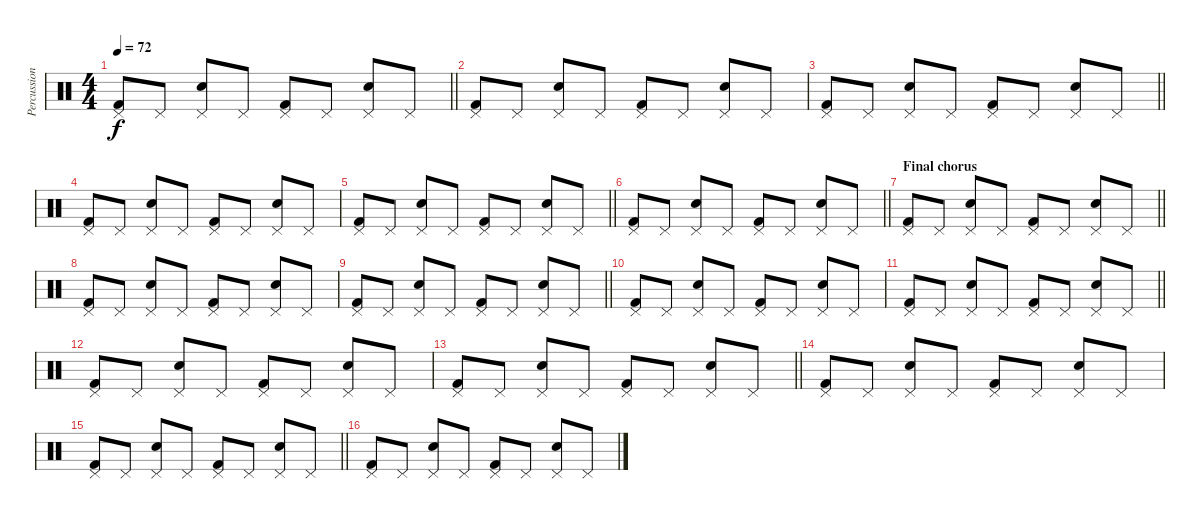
\track ("Percussion" "Percussion") {instrument percussion}
\staff {score}
\articulation defaults
\ts (4 4)
\tempo 72
\clef neutral
\barLineRight lightlight
\ks c
("Pedal Hi-Hat (hit)" "Kick (hit) 2").8{dy f} "Pedal Hi-Hat (hit)".8 ("Pedal Hi-Hat (hit)" "Snare (hit) 2").8 "Pedal Hi-Hat (hit)".8 ("Pedal Hi-Hat (hit)" "Kick (hit) 2").8 "Pedal Hi-Hat (hit)".8 ("Pedal Hi-Hat (hit)" "Snare (hit) 2").8 "Pedal Hi-Hat (hit)".8 |
("Pedal Hi-Hat (hit)" "Kick (hit) 2").8 "Pedal Hi-Hat (hit)".8 ("Pedal Hi-Hat (hit)" "Snare (hit) 2").8 "Pedal Hi-Hat (hit)".8 ("Pedal Hi-Hat (hit)" "Kick (hit) 2").8 "Pedal Hi-Hat (hit)".8 ("Pedal Hi-Hat (hit)" "Snare (hit) 2").8 "Pedal Hi-Hat (hit)".8 |
\barLineRight lightlight
("Pedal Hi-Hat (hit)" "Kick (hit) 2").8 "Pedal Hi-Hat (hit)".8 ("Pedal Hi-Hat (hit)" "Snare (hit) 2").8 "Pedal Hi-Hat (hit)".8 ("Pedal Hi-Hat (hit)" "Kick (hit) 2").8 "Pedal Hi-Hat (hit)".8 ("Pedal Hi-Hat (hit)" "Snare (hit) 2").8 "Pedal Hi-Hat (hit)".8 |
("Pedal Hi-Hat (hit)" "Kick (hit) 2").8 "Pedal Hi-Hat (hit)".8 ("Pedal Hi-Hat (hit)" "Snare (hit) 2").8 "Pedal Hi-Hat (hit)".8 ("Pedal Hi-Hat (hit)" "Kick (hit) 2").8 "Pedal Hi-Hat (hit)".8 ("Pedal Hi-Hat (hit)" "Snare (hit) 2").8 "Pedal Hi-Hat (hit)".8 |
\barLineRight lightlight
("Pedal Hi-Hat (hit)" "Kick (hit) 2").8 "Pedal Hi-Hat (hit)".8 ("Pedal Hi-Hat (hit)" "Snare (hit) 2").8 "Pedal Hi-Hat (hit)".8 ("Pedal Hi-Hat (hit)" "Kick (hit) 2").8 "Pedal Hi-Hat (hit)".8 ("Pedal Hi-Hat (hit)" "Snare (hit) 2").8 "Pedal Hi-Hat (hit)".8 |
\barLineRight lightlight
("Pedal Hi-Hat (hit)" "Kick (hit) 2").8 "Pedal Hi-Hat (hit)".8 ("Pedal Hi-Hat (hit)" "Snare (hit) 2").8 "Pedal Hi-Hat (hit)".8 ("Pedal Hi-Hat (hit)" "Kick (hit) 2").8 "Pedal Hi-Hat (hit)".8 ("Pedal Hi-Hat (hit)" "Snare (hit) 2").8 "Pedal Hi-Hat (hit)".8 |
\section ("" "Final chorus")
\barLineRight lightlight
("Pedal Hi-Hat (hit)" "Kick (hit) 2").8 "Pedal Hi-Hat (hit)".8 ("Pedal Hi-Hat (hit)" "Snare (hit) 2").8 "Pedal Hi-Hat (hit)".8 ("Pedal Hi-Hat (hit)" "Kick (hit) 2").8 "Pedal Hi-Hat (hit)".8 ("Pedal Hi-Hat (hit)" "Snare (hit) 2").8 "Pedal Hi-Hat (hit)".8 |
("Pedal Hi-Hat (hit)" "Kick (hit) 2").8 "Pedal Hi-Hat (hit)".8 ("Pedal Hi-Hat (hit)" "Snare (hit) 2").8 "Pedal Hi-Hat (hit)".8 ("Pedal Hi-Hat (hit)" "Kick (hit) 2").8 "Pedal Hi-Hat (hit)".8 ("Pedal Hi-Hat (hit)" "Snare (hit) 2").8 "Pedal Hi-Hat (hit)".8 |
\barLineRight lightlight
("Pedal Hi-Hat (hit)" "Kick (hit) 2").8 "Pedal Hi-Hat (hit)".8 ("Pedal Hi-Hat (hit)" "Snare (hit) 2").8 "Pedal Hi-Hat (hit)".8 ("Pedal Hi-Hat (hit)" "Kick (hit) 2").8 "Pedal Hi-Hat (hit)".8 ("Pedal Hi-Hat (hit)" "Snare (hit) 2").8 "Pedal Hi-Hat (hit)".8 |
("Pedal Hi-Hat (hit)" "Kick (hit) 2").8 "Pedal Hi-Hat (hit)".8 ("Pedal Hi-Hat (hit)" "Snare (hit) 2").8 "Pedal Hi-Hat (hit)".8 ("Pedal Hi-Hat (hit)" "Kick (hit) 2").8 "Pedal Hi-Hat (hit)".8 ("Pedal Hi-Hat (hit)" "Snare (hit) 2").8 "Pedal Hi-Hat (hit)".8 |
\barLineRight lightlight
("Pedal Hi-Hat (hit)" "Kick (hit) 2").8 "Pedal Hi-Hat (hit)".8 ("Pedal Hi-Hat (hit)" "Snare (hit) 2").8 "Pedal Hi-Hat (hit)".8 ("Pedal Hi-Hat (hit)" "Kick (hit) 2").8 "Pedal Hi-Hat (hit)".8 ("Pedal Hi-Hat (hit)" "Snare (hit) 2").8 "Pedal Hi-Hat (hit)".8 |
("Pedal Hi-Hat (hit)" "Kick (hit) 2").8 "Pedal Hi-Hat (hit)".8 ("Pedal Hi-Hat (hit)" "Snare (hit) 2").8 "Pedal Hi-Hat (hit)".8 ("Pedal Hi-Hat (hit)" "Kick (hit) 2").8 "Pedal Hi-Hat (hit)".8 ("Pedal Hi-Hat (hit)" "Snare (hit) 2").8 "Pedal Hi-Hat (hit)".8 |
\barLineRight lightlight
("Pedal Hi-Hat (hit)" "Kick (hit) 2").8 "Pedal Hi-Hat (hit)".8 ("Pedal Hi-Hat (hit)" "Snare (hit) 2").8 "Pedal Hi-Hat (hit)".8 ("Pedal Hi-Hat (hit)" "Kick (hit) 2").8 "Pedal Hi-Hat (hit)".8 ("Pedal Hi-Hat (hit)" "Snare (hit) 2").8 "Pedal Hi-Hat (hit)".8 |
("Pedal Hi-Hat (hit)" "Kick (hit) 2").8 "Pedal Hi-Hat (hit)".8 ("Pedal Hi-Hat (hit)" "Snare (hit) 2").8 "Pedal Hi-Hat (hit)".8 ("Pedal Hi-Hat (hit)" "Kick (hit) 2").8 "Pedal Hi-Hat (hit)".8 ("Pedal Hi-Hat (hit)" "Snare (hit) 2").8 "Pedal Hi-Hat (hit)".8 |
\barLineRight lightlight
("Pedal Hi-Hat (hit)" "Kick (hit) 2").8 "Pedal Hi-Hat (hit)".8 ("Pedal Hi-Hat (hit)" "Snare (hit) 2").8 "Pedal Hi-Hat (hit)".8 ("Pedal Hi-Hat (hit)" "Kick (hit) 2").8 "Pedal Hi-Hat (hit)".8 ("Pedal Hi-Hat (hit)" "Snare (hit) 2").8 "Pedal Hi-Hat (hit)".8 |
("Pedal Hi-Hat (hit)" "Kick (hit) 2").8 "Pedal Hi-Hat (hit)".8 ("Pedal Hi-Hat (hit)" "Snare (hit) 2").8 "Pedal Hi-Hat (hit)".8 ("Pedal Hi-Hat (hit)" "Kick (hit) 2").8 "Pedal Hi-Hat (hit)".8 ("Pedal Hi-Hat (hit)" "Snare (hit) 2").8 "Pedal Hi-Hat (hit)".8
